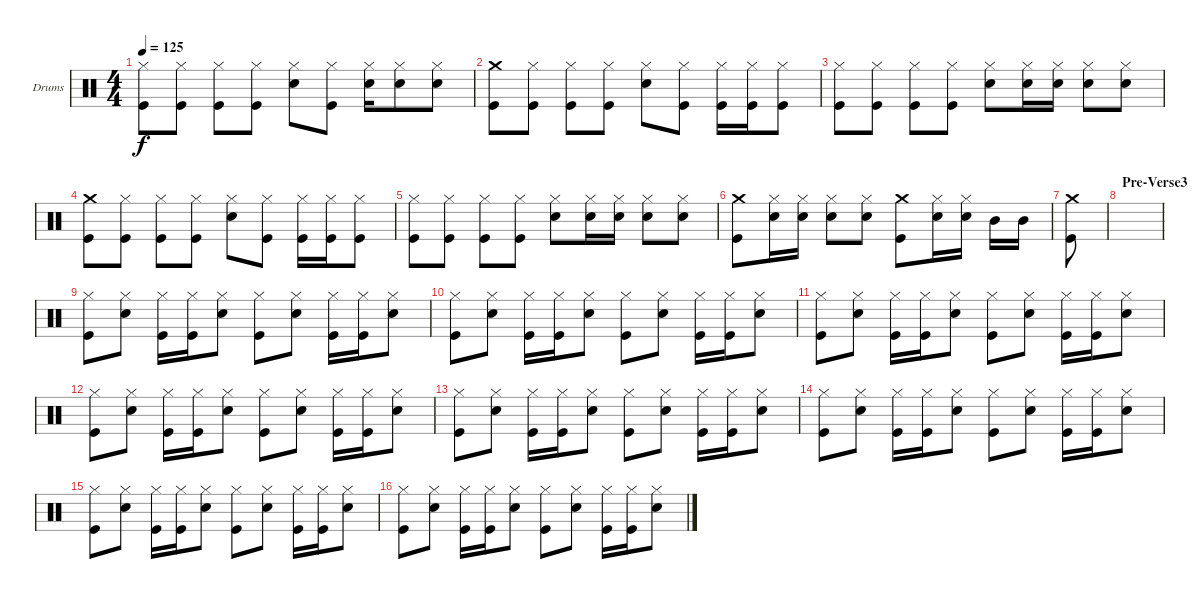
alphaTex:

\defaultSystemsLayout 4
\bracketExtendMode groupsimilarinstruments
\firstSystemTrackNameOrientation horizontal
\otherSystemsTrackNameOrientation horizontal
\track ("Drum" "Drums") {instrument percussion}
\staff {score}
\articulation defaults
\ts (4 4)
\tempo 125
\clef neutral
\ks c
("Hi-Hat (closed)" "Kick (hit)").8{dy f} ("Hi-Hat (closed)" "Kick (hit)").8 ("Hi-Hat (closed)" "Kick (hit)").8 ("Hi-Hat (closed)" "Kick (hit)").8 ("Hi-Hat (closed)" "Snare (hit) 2").8 ("Hi-Hat (closed)" "Kick (hit)").8 ("Hi-Hat (closed)" "Snare (hit) 2").16 ("Hi-Hat (closed)" "Snare (hit) 2").8 ("Hi-Hat (closed)" "Snare (hit) 2").8 |
("Crash medium (hit)" "Kick (hit)").8 ("Hi-Hat (closed)" "Kick (hit)").8 ("Hi-Hat (closed)" "Kick (hit)").8 ("Hi-Hat (closed)" "Kick (hit)").8 ("Hi-Hat (closed)" "Snare (hit) 2").8 ("Hi-Hat (closed)" "Kick (hit)").8 ("Hi-Hat (closed)" "Kick (hit)").16 ("Hi-Hat (closed)" "Kick (hit)").16 ("Hi-Hat (closed)" "Kick (hit)").8 |
("Hi-Hat (closed)" "Kick (hit)").8 ("Hi-Hat (closed)" "Kick (hit)").8 ("Hi-Hat (closed)" "Kick (hit)").8 ("Hi-Hat (closed)" "Kick (hit)").8 ("Hi-Hat (closed)" "Snare (hit) 2").8 ("Hi-Hat (closed)" "Snare (hit) 2").16 ("Hi-Hat (closed)" "Snare (hit) 2").16 ("Hi-Hat (closed)" "Snare (hit) 2").8 ("Hi-Hat (closed)" "Snare (hit) 2").8 |
("Crash medium (hit)" "Kick (hit)").8 ("Hi-Hat (closed)" "Kick (hit)").8 ("Hi-Hat (closed)" "Kick (hit)").8 ("Hi-Hat (closed)" "Kick (hit)").8 ("Hi-Hat (closed)" "Snare (hit) 2").8 ("Hi-Hat (closed)" "Kick (hit)").8 ("Hi-Hat (closed)" "Kick (hit)").16 ("Hi-Hat (closed)" "Kick (hit)").16 ("Hi-Hat (closed)" "Kick (hit)").8 |
("Hi-Hat (closed)" "Kick (hit)").8 ("Hi-Hat (closed)" "Kick (hit)").8 ("Hi-Hat (closed)" "Kick (hit)").8 ("Hi-Hat (closed)" "Kick (hit)").8 ("Hi-Hat (closed)" "Snare (hit) 2").8 ("Hi-Hat (closed)" "Snare (hit) 2").16 ("Hi-Hat (closed)" "Snare (hit) 2").16 ("Hi-Hat (closed)" "Snare (hit) 2").8 ("Hi-Hat (closed)" "Snare (hit) 2").8 |
("Crash medium (hit)" "Kick (hit)").8 ("Hi-Hat (closed)" "Snare (hit) 2").16 ("Hi-Hat (closed)" "Snare (hit) 2").16 ("Hi-Hat (closed)" "Snare (hit) 2").8 ("Hi-Hat (closed)" "Snare (hit) 2").8 ("Crash medium (hit)" "Kick (hit)").8 ("Hi-Hat (closed)" "Snare (hit) 2").16 ("Hi-Hat (closed)" "Snare (hit) 2").16 "Mid Tom (hit)".16 "Mid Tom (hit)".16 |
("Crash medium (hit)" "Kick (hit)").8 |
\section ("" "Pre-Verse3")
|
("Hi-Hat (closed)" "Kick (hit)").8 ("Hi-Hat (closed)" "Snare (hit) 2").8 ("Hi-Hat (closed)" "Kick (hit)").16 ("Hi-Hat (closed)" "Kick (hit)").16 ("Hi-Hat (closed)" "Snare (hit) 2").8 ("Hi-Hat (closed)" "Kick (hit)").8 ("Hi-Hat (closed)" "Snare (hit) 2").8 ("Hi-Hat (closed)" "Kick (hit)").16 ("Hi-Hat (closed)" "Kick (hit)").16 ("Hi-Hat (closed)" "Snare (hit) 2").8 |
("Hi-Hat (closed)" "Kick (hit)").8 ("Hi-Hat (closed)" "Snare (hit) 2").8 ("Hi-Hat (closed)" "Kick (hit)").16 ("Hi-Hat (closed)" "Kick (hit)").16 ("Hi-Hat (closed)" "Snare (hit) 2").8 ("Hi-Hat (closed)" "Kick (hit)").8 ("Hi-Hat (closed)" "Snare (hit) 2").8 ("Hi-Hat (closed)" "Kick (hit)").16 ("Hi-Hat (closed)" "Kick (hit)").16 ("Hi-Hat (closed)" "Snare (hit) 2").8 |
("Hi-Hat (closed)" "Kick (hit)").8 ("Hi-Hat (closed)" "Snare (hit) 2").8 ("Hi-Hat (closed)" "Kick (hit)").16 ("Hi-Hat (closed)" "Kick (hit)").16 ("Hi-Hat (closed)" "Snare (hit) 2").8 ("Hi-Hat (closed)" "Kick (hit)").8 ("Hi-Hat (closed)" "Snare (hit) 2").8 ("Hi-Hat (closed)" "Kick (hit)").16 ("Hi-Hat (closed)" "Kick (hit)").16 ("Hi-Hat (closed)" "Snare (hit) 2").8 |
("Hi-Hat (closed)" "Kick (hit)").8 ("Hi-Hat (closed)" "Snare (hit) 2").8 ("Hi-Hat (closed)" "Kick (hit)").16 ("Hi-Hat (closed)" "Kick (hit)").16 ("Hi-Hat (closed)" "Snare (hit) 2").8 ("Hi-Hat (closed)" "Kick (hit)").8 ("Hi-Hat (closed)" "Snare (hit) 2").8 ("Hi-Hat (closed)" "Kick (hit)").16 ("Hi-Hat (closed)" "Kick (hit)").16 ("Hi-Hat (closed)" "Snare (hit) 2").8 |
("Hi-Hat (closed)" "Kick (hit)").8 ("Hi-Hat (closed)" "Snare (hit) 2").8 ("Hi-Hat (closed)" "Kick (hit)").16 ("Hi-Hat (closed)" "Kick (hit)").16 ("Hi-Hat (closed)" "Snare (hit) 2").8 ("Hi-Hat (closed)" "Kick (hit)").8 ("Hi-Hat (closed)" "Snare (hit) 2").8 ("Hi-Hat (closed)" "Kick (hit)").16 ("Hi-Hat (closed)" "Kick (hit)").16 ("Hi-Hat (closed)" "Snare (hit) 2").8 |
("Hi-Hat (closed)" "Kick (hit)").8 ("Hi-Hat (closed)" "Snare (hit) 2").8 ("Hi-Hat (closed)" "Kick (hit)").16 ("Hi-Hat (closed)" "Kick (hit)").16 ("Hi-Hat (closed)" "Snare (hit) 2").8 ("Hi-Hat (closed)" "Kick (hit)").8 ("Hi-Hat (closed)" "Snare (hit) 2").8 ("Hi-Hat (closed)" "Kick (hit)").16 ("Hi-Hat (closed)" "Kick (hit)").16 ("Hi-Hat (closed)" "Snare (hit) 2").8 |
("Hi-Hat (closed)" "Kick (hit)").8 ("Hi-Hat (closed)" "Snare (hit) 2").8 ("Hi-Hat (closed)" "Kick (hit)").16 ("Hi-Hat (closed)" "Kick (hit)").16 ("Hi-Hat (closed)" "Snare (hit) 2").8 ("Hi-Hat (closed)" "Kick (hit)").8 ("Hi-Hat (closed)" "Snare (hit) 2").8 ("Hi-Hat (closed)" "Kick (hit)").16 ("Hi-Hat (closed)" "Kick (hit)").16 ("Hi-Hat (closed)" "Snare (hit) 2").8 |
("Hi-Hat (closed)" "Kick (hit)").8 ("Hi-Hat (closed)" "Snare (hit) 2").8 ("Hi-Hat (closed)" "Kick (hit)").16 ("Hi-Hat (closed)" "Kick (hit)").16 ("Hi-Hat (closed)" "Snare (hit) 2").8 ("Hi-Hat (closed)" "Kick (hit)").8 ("Hi-Hat (closed)" "Snare (hit) 2").8 ("Hi-Hat (closed)" "Kick (hit)").16 ("Hi-Hat (closed)" "Kick (hit)").16 ("Hi-Hat (closed)" "Snare (hit) 2").8
